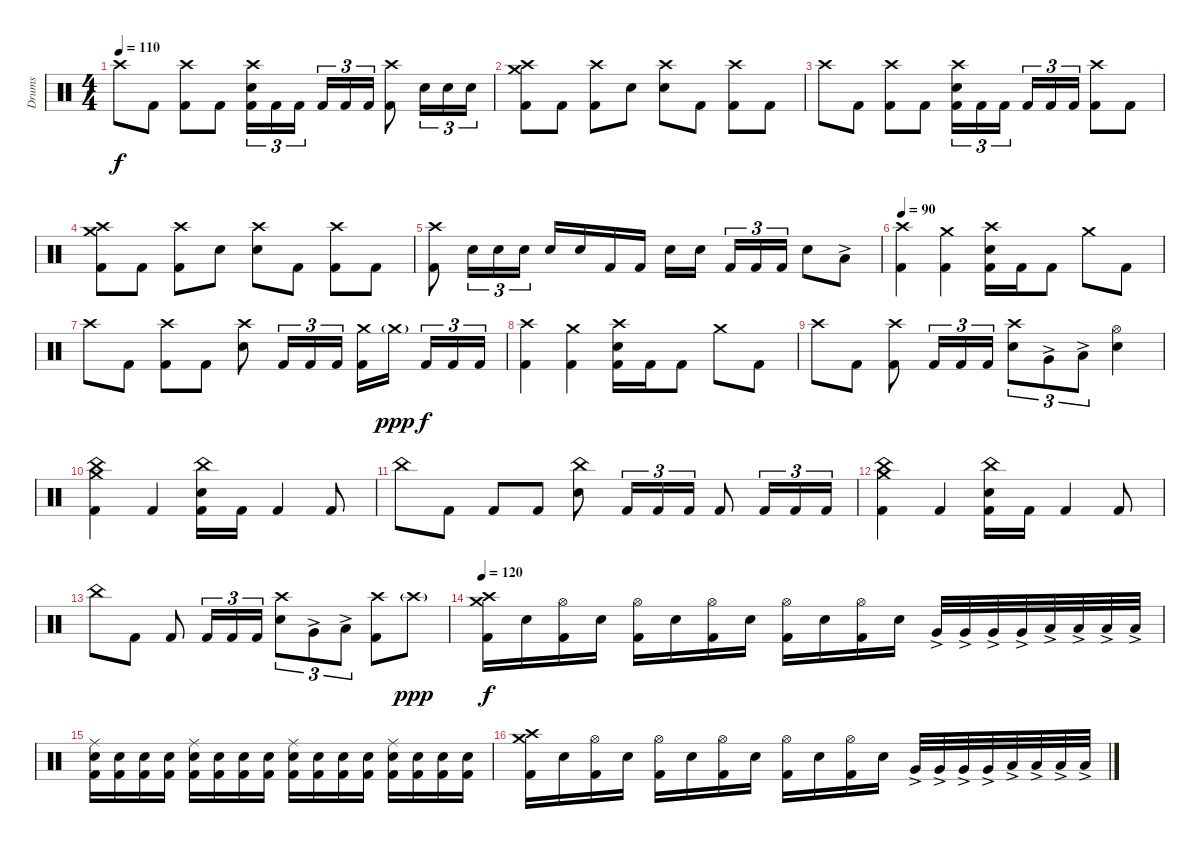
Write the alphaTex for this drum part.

\track ("Drums" "Drums") {instrument percussion}
\staff {score}
\articulation defaults
\ts (4 4)
\tempo 110
\clef neutral
\ks c "Crash high (hit)".8{dy f} "Kick (hit) 2".8
("Crash high (hit)" "Kick (hit) 2").8 "Kick (hit) 2".8 ("Crash high (hit)" "Electric Snare (hit)" "Kick (hit) 2").16{tu (3 2)} "Kick (hit) 2".16{tu (3 2)} "Kick (hit) 2".16{tu (3 2)} "Kick (hit) 2".16{tu (3 2)} "Kick (hit) 2".16{tu (3 2)} "Kick (hit) 2".16{tu (3 2)} ("Crash high (hit)" "Kick (hit) 2").8 "Electric Snare (hit)".16{tu (3 2)} "Electric Snare (hit)".16{tu (3 2)} "Electric Snare (hit)".16{tu (3 2)} |
("Crash medium (hit)" "Crash high (hit)" "Kick (hit) 2").8 "Kick (hit) 2".8 ("Crash high (hit)" "Kick (hit) 2").8 "Electric Snare (hit)".8 ("Crash high (hit)" "Electric Snare (hit)").8 "Kick (hit) 2".8 ("Crash high (hit)" "Kick (hit) 2").8 "Kick (hit) 2".8 |
"Crash high (hit)".8 "Kick (hit) 2".8 ("Crash high (hit)" "Kick (hit) 2").8 "Kick (hit) 2".8 ("Crash high (hit)" "Electric Snare (hit)" "Kick (hit) 2").16{tu (3 2)} "Kick (hit) 2".16{tu (3 2)} "Kick (hit) 2".16{tu (3 2)} "Kick (hit) 2".16{tu (3 2)} "Kick (hit) 2".16{tu (3 2)} "Kick (hit) 2".16{tu (3 2)} ("Crash high (hit)" "Kick (hit) 2").8 "Kick (hit) 2".8 |
("Crash medium (hit)" "Crash high (hit)" "Kick (hit) 2").8 "Kick (hit) 2".8 ("Crash high (hit)" "Kick (hit) 2").8 "Electric Snare (hit)".8 ("Crash high (hit)" "Electric Snare (hit)").8 "Kick (hit) 2".8 ("Crash high (hit)" "Kick (hit) 2").8 "Kick (hit) 2".8 |
("Crash high (hit)" "Kick (hit) 2").8 "Electric Snare (hit)".16{tu (3 2)} "Electric Snare (hit)".16{tu (3 2)} "Electric Snare (hit)".16{tu (3 2)} "Electric Snare (hit)".16 "Electric Snare (hit)".16 "Kick (hit) 2".16 "Kick (hit) 2".16 "Electric Snare (hit)".16 "Electric Snare (hit)".16 "Kick (hit) 2".16{tu (3 2)} "Kick (hit) 2".16{tu (3 2)} "Kick (hit) 2".16{tu (3 2)} "Electric Snare (hit)".8 "Low Floor Tom (hit)"{ac}.8 |
\tempo 90
("Crash high (hit)" "Kick (hit) 2").4 ("Crash medium (hit)" "Kick (hit) 2").4 ("Crash high (hit)" "Electric Snare (hit)" "Kick (hit) 2").16 "Kick (hit) 2".16 "Kick (hit) 2".8 "Crash medium (hit)".8 "Kick (hit) 2".8 |
"Crash high (hit)".8 "Kick (hit) 2".8 ("Crash high (hit)" "Kick (hit) 2").8 "Kick (hit) 2".8 ("Crash high (hit)" "Electric Snare (hit)").8 "Kick (hit) 2".16{tu (3 2)} "Kick (hit) 2".16{tu (3 2)} "Kick (hit) 2".16{tu (3 2)} ("Crash medium (hit)" "Kick (hit) 2").16 "Crash medium (hit)"{g}.16{dy ppp} "Kick (hit) 2".16{tu (3 2) dy f} "Kick (hit) 2".16{tu (3 2)} "Kick (hit) 2".16{tu (3 2)} |
("Crash high (hit)" "Kick (hit) 2").4 ("Crash medium (hit)" "Kick (hit) 2").4 ("Crash high (hit)" "Electric Snare (hit)" "Kick (hit) 2").16 "Kick (hit) 2".16 "Kick (hit) 2".8 "Crash medium (hit)".8 "Kick (hit) 2".8 |
"Crash high (hit)".8 "Kick (hit) 2".8 ("Crash high (hit)" "Kick (hit) 2").8 "Kick (hit) 2".16{tu (3 2)} "Kick (hit) 2".16{tu (3 2)} "Kick (hit) 2".16{tu (3 2)} ("Crash high (hit)" "Electric Snare (hit)").8{tu (3 2)} "Very Low Tom (hit)"{ac}.8{tu (3 2)} "Low Floor Tom (hit)"{ac}.8{tu (3 2)} ("Electric Snare (hit)" "Hi-Hat (open)").4 |
("Crash medium (hit)" "China (hit)" "Kick (hit) 2").4 "Kick (hit) 2".4 ("China (hit)" "Electric Snare (hit)" "Kick (hit) 2").16 "Kick (hit) 2".16 "Kick (hit) 2".4 "Kick (hit) 2".8 |
"China (hit)".8 "Kick (hit) 2".8 "Kick (hit) 2".8 "Kick (hit) 2".8 ("China (hit)" "Electric Snare (hit)").8 "Kick (hit) 2".16{tu (3 2)} "Kick (hit) 2".16{tu (3 2)} "Kick (hit) 2".16{tu (3 2)} "Kick (hit) 2".8 "Kick (hit) 2".16{tu (3 2)} "Kick (hit) 2".16{tu (3 2)} "Kick (hit) 2".16{tu (3 2)} |
("Crash medium (hit)" "China (hit)" "Kick (hit) 2").4 "Kick (hit) 2".4 ("China (hit)" "Electric Snare (hit)" "Kick (hit) 2").16 "Kick (hit) 2".16 "Kick (hit) 2".4 "Kick (hit) 2".8 |
"China (hit)".8 "Kick (hit) 2".8 "Kick (hit) 2".8 "Kick (hit) 2".16{tu (3 2)} "Kick (hit) 2".16{tu (3 2)} "Kick (hit) 2".16{tu (3 2)} ("Crash high (hit)" "Electric Snare (hit)").8{tu (3 2)} "Very Low Tom (hit)"{ac}.8{tu (3 2)} "Low Floor Tom (hit)"{ac}.8{tu (3 2)} ("Crash high (hit)" "Kick (hit) 2").8 "Crash high (hit)"{g}.8{dy ppp} |
\tempo 120
("Crash medium (hit)" "Crash high (hit)" "Kick (hit) 2").16{dy f} "Electric Snare (hit)".16 ("Hi-Hat (open)" "Kick (hit) 2").16 "Electric Snare (hit)".16 ("Hi-Hat (open)" "Kick (hit) 2").16 "Electric Snare (hit)".16 ("Hi-Hat (open)" "Kick (hit) 2").16 "Electric Snare (hit)".16 ("Hi-Hat (open)" "Kick (hit) 2").16 "Electric Snare (hit)".16 ("Hi-Hat (open)" "Kick (hit) 2").16 "Electric Snare (hit)".16 "Very Low Tom (hit)"{ac}.32 "Very Low Tom (hit)"{ac}.32 "Very Low Tom (hit)"{ac}.32 "Very Low Tom (hit)"{ac}.32 "Low Floor Tom (hit)"{ac}.32 "Low Floor Tom (hit)"{ac}.32 "Low Floor Tom (hit)"{ac}.32 "Low Floor Tom (hit)"{ac}.32 |
("Electric Snare (hit)" "Ride (middle)" "Kick (hit) 2").16 ("Electric Snare (hit)" "Kick (hit) 2").16 ("Electric Snare (hit)" "Kick (hit) 2").16 ("Electric Snare (hit)" "Kick (hit) 2").16 ("Electric Snare (hit)" "Ride (middle)" "Kick (hit) 2").16 ("Electric Snare (hit)" "Kick (hit) 2").16 ("Electric Snare (hit)" "Kick (hit) 2").16 ("Electric Snare (hit)" "Kick (hit) 2").16 ("Electric Snare (hit)" "Ride (middle)" "Kick (hit) 2").16 ("Electric Snare (hit)" "Kick (hit) 2").16 ("Electric Snare (hit)" "Kick (hit) 2").16 ("Electric Snare (hit)" "Kick (hit) 2").16 ("Electric Snare (hit)" "Ride (middle)" "Kick (hit) 2").16 ("Electric Snare (hit)" "Kick (hit) 2").16 ("Electric Snare (hit)" "Kick (hit) 2").16 ("Electric Snare (hit)" "Kick (hit) 2").16 |
("Crash medium (hit)" "Crash high (hit)" "Kick (hit) 2").16 "Electric Snare (hit)".16 ("Hi-Hat (open)" "Kick (hit) 2").16 "Electric Snare (hit)".16 ("Hi-Hat (open)" "Kick (hit) 2").16 "Electric Snare (hit)".16 ("Hi-Hat (open)" "Kick (hit) 2").16 "Electric Snare (hit)".16 ("Hi-Hat (open)" "Kick (hit) 2").16 "Electric Snare (hit)".16 ("Hi-Hat (open)" "Kick (hit) 2").16 "Electric Snare (hit)".16 "Very Low Tom (hit)"{ac}.32 "Very Low Tom (hit)"{ac}.32 "Very Low Tom (hit)"{ac}.32 "Very Low Tom (hit)"{ac}.32 "Low Floor Tom (hit)"{ac}.32 "Low Floor Tom (hit)"{ac}.32 "Low Floor Tom (hit)"{ac}.32 "Low Floor Tom (hit)"{ac}.32
